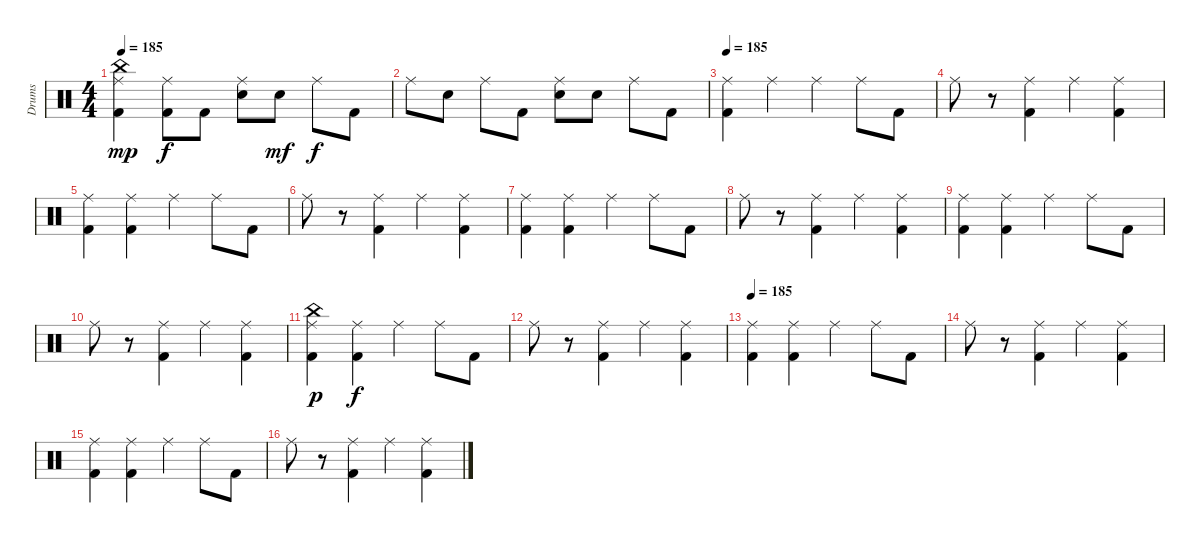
\track ("Drums" "Drums") {instrument percussion}
\staff {score}
\articulation defaults
\ts (4 4)
\tempo 185
\clef neutral
\ks c
("Ride (middle)" "China (hit)" "Kick (hit) 2").4{dy mp} ("Ride (middle)" "Kick (hit) 2").8{dy f} "Kick (hit) 2".8 ("Ride (middle)" "Snare (hit) 2").8 "Snare (hit) 2".8{dy mf} "Ride (middle)".8{dy f} "Kick (hit) 2".8 |
"Ride (middle)".8 "Snare (hit) 2".8 "Ride (middle)".8 "Kick (hit) 2".8 ("Ride (middle)" "Snare (hit) 2").8 "Snare (hit) 2".8 "Ride (middle)".8 "Kick (hit) 2".8 |
\tempo 185
("Ride (middle)" "Kick (hit) 2").4 "Ride (middle)".4 "Ride (middle)".4 "Ride (middle)".8 "Kick (hit) 2".8 |
"Ride (middle)".8 r.8 ("Ride (middle)" "Kick (hit) 2").4 "Ride (middle)".4 ("Ride (middle)" "Kick (hit) 2").4 |
("Ride (middle)" "Kick (hit) 2").4 ("Ride (middle)" "Kick (hit) 2").4 "Ride (middle)".4 "Ride (middle)".8 "Kick (hit) 2".8 |
"Ride (middle)".8 r.8 ("Ride (middle)" "Kick (hit) 2").4 "Ride (middle)".4 ("Ride (middle)" "Kick (hit) 2").4 |
("Ride (middle)" "Kick (hit) 2").4 ("Ride (middle)" "Kick (hit) 2").4 "Ride (middle)".4 "Ride (middle)".8 "Kick (hit) 2".8 |
"Ride (middle)".8 r.8 ("Ride (middle)" "Kick (hit) 2").4 "Ride (middle)".4 ("Ride (middle)" "Kick (hit) 2").4 |
("Ride (middle)" "Kick (hit) 2").4 ("Ride (middle)" "Kick (hit) 2").4 "Ride (middle)".4 "Ride (middle)".8 "Kick (hit) 2".8 |
"Ride (middle)".8 r.8 ("Ride (middle)" "Kick (hit) 2").4 "Ride (middle)".4 ("Ride (middle)" "Kick (hit) 2").4 |
("Ride (middle)" "China (hit)" "Kick (hit) 2").4{dy p} ("Ride (middle)" "Kick (hit) 2").4{dy f} "Ride (middle)".4 "Ride (middle)".8 "Kick (hit) 2".8 |
"Ride (middle)".8 r.8 ("Ride (middle)" "Kick (hit) 2").4 "Ride (middle)".4 ("Ride (middle)" "Kick (hit) 2").4 |
\tempo 185
("Ride (middle)" "Kick (hit) 2").4 ("Ride (middle)" "Kick (hit) 2").4 "Ride (middle)".4 "Ride (middle)".8 "Kick (hit) 2".8 |
"Ride (middle)".8 r.8 ("Ride (middle)" "Kick (hit) 2").4 "Ride (middle)".4 ("Ride (middle)" "Kick (hit) 2").4 |
("Ride (middle)" "Kick (hit) 2").4 ("Ride (middle)" "Kick (hit) 2").4 "Ride (middle)".4 "Ride (middle)".8 "Kick (hit) 2".8 |
"Ride (middle)".8 r.8 ("Ride (middle)" "Kick (hit) 2").4 "Ride (middle)".4 ("Ride (middle)" "Kick (hit) 2").4
